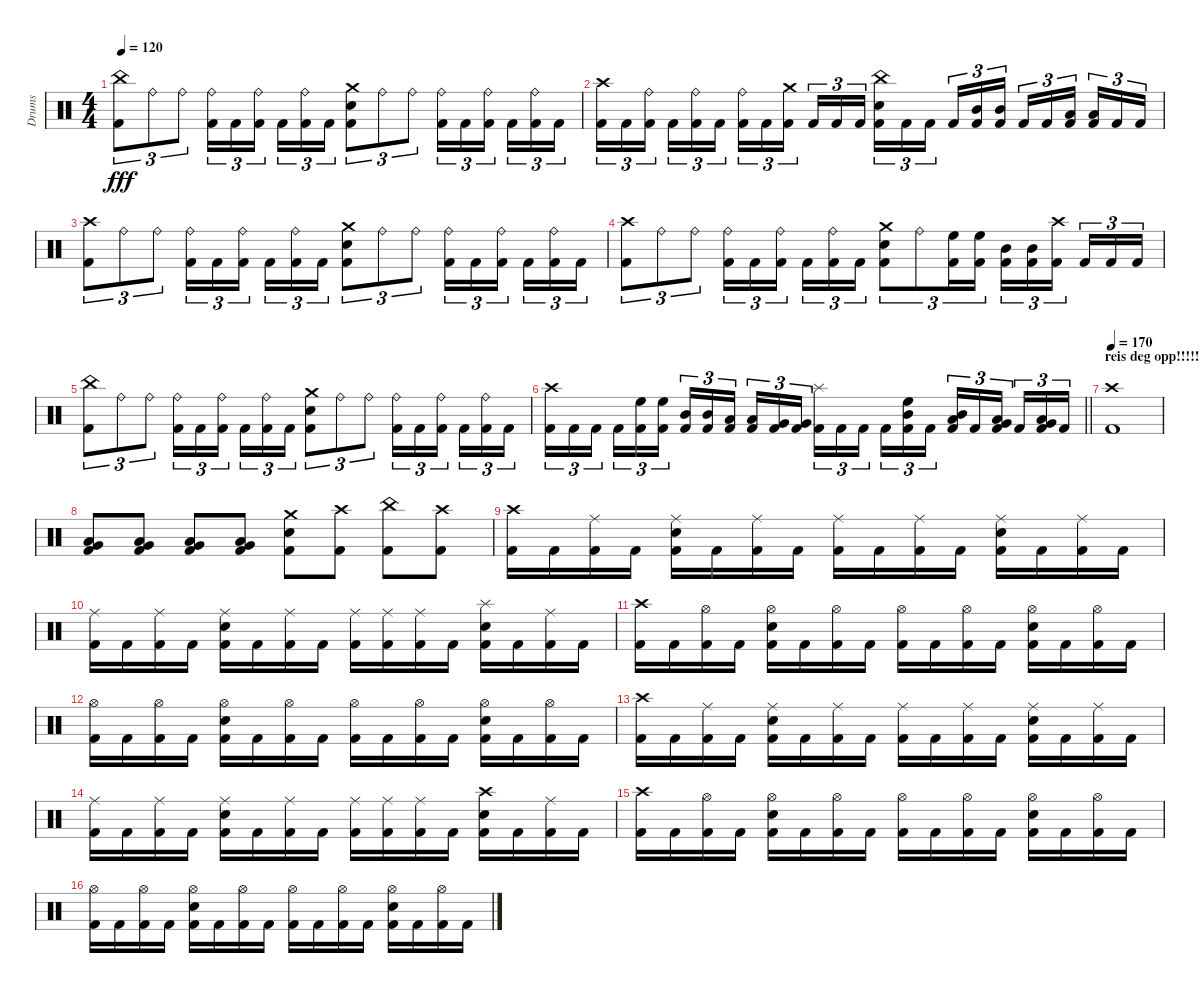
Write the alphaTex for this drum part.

\track ("Drums" "Drums") {instrument percussion}
\staff {score}
\articulation defaults
\ts (4 4)
\tempo 120
\clef neutral
\ks c
("China (hit)" "Kick (hit) 2").8{tu (3 2) dy fff} "Ride (bell)".8{tu (3 2)} "Ride (bell)".8{tu (3 2)} ("Ride (bell)" "Kick (hit) 2").16{tu (3 2)} "Kick (hit) 2".16{tu (3 2)} ("Ride (bell)" "Kick (hit) 2").16{tu (3 2) beam splitsecondary} "Kick (hit) 2".16{tu (3 2)} ("Ride (bell)" "Kick (hit) 2").16{tu (3 2)} "Kick (hit) 2".16{tu (3 2)} ("Crash medium (hit)" "Snare (hit) 2" "Kick (hit) 2").8{tu (3 2)} "Ride (bell)".8{tu (3 2)} "Ride (bell)".8{tu (3 2)} ("Ride (bell)" "Kick (hit) 2").16{tu (3 2)} "Kick (hit) 2".16{tu (3 2)} ("Ride (bell)" "Kick (hit) 2").16{tu (3 2) beam splitsecondary} "Kick (hit) 2".16{tu (3 2)} ("Ride (bell)" "Kick (hit) 2").16{tu (3 2)} "Kick (hit) 2".16{tu (3 2)} |
("Crash high (hit)" "Kick (hit) 2").16{tu (3 2)} "Kick (hit) 2".16{tu (3 2)} ("Ride (bell)" "Kick (hit) 2").16{tu (3 2) beam splitsecondary} "Kick (hit) 2".16{tu (3 2)} ("Ride (bell)" "Kick (hit) 2").16{tu (3 2)} "Kick (hit) 2".16{tu (3 2)} ("Ride (bell)" "Kick (hit) 2").16{tu (3 2)} "Kick (hit) 2".16{tu (3 2)} ("Crash medium (hit)" "Kick (hit) 2").16{tu (3 2) beam splitsecondary} "Kick (hit) 2".16{tu (3 2)} "Kick (hit) 2".16{tu (3 2)} "Kick (hit) 2".16{tu (3 2)} ("China (hit)" "Snare (hit) 2" "Kick (hit) 2").16{tu (3 2)} "Kick (hit) 2".16{tu (3 2)} "Kick (hit) 2".16{tu (3 2) beam splitsecondary} "Kick (hit) 2".16{tu (3 2)} ("Mid Tom (hit)" "Kick (hit) 2").16{tu (3 2)} ("Mid Tom (hit)" "Kick (hit) 2").16{tu (3 2)} "Kick (hit) 2".16{tu (3 2)} "Kick (hit) 2".16{tu (3 2)} ("Low Tom (hit)" "Kick (hit) 2").16{tu (3 2) beam splitsecondary} ("Low Tom (hit)" "Kick (hit) 2").16{tu (3 2)} "Kick (hit) 2".16{tu (3 2)} "Kick (hit) 2".16{tu (3 2)} |
("Crash high (hit)" "Kick (hit) 2").8{tu (3 2)} "Ride (bell)".8{tu (3 2)} "Ride (bell)".8{tu (3 2)} ("Ride (bell)" "Kick (hit) 2").16{tu (3 2)} "Kick (hit) 2".16{tu (3 2)} ("Ride (bell)" "Kick (hit) 2").16{tu (3 2) beam splitsecondary} "Kick (hit) 2".16{tu (3 2)} ("Ride (bell)" "Kick (hit) 2").16{tu (3 2)} "Kick (hit) 2".16{tu (3 2)} ("Crash medium (hit)" "Snare (hit) 2" "Kick (hit) 2").8{tu (3 2)} "Ride (bell)".8{tu (3 2)} "Ride (bell)".8{tu (3 2)} ("Ride (bell)" "Kick (hit) 2").16{tu (3 2)} "Kick (hit) 2".16{tu (3 2)} ("Ride (bell)" "Kick (hit) 2").16{tu (3 2) beam splitsecondary} "Kick (hit) 2".16{tu (3 2)} ("Ride (bell)" "Kick (hit) 2").16{tu (3 2)} "Kick (hit) 2".16{tu (3 2)} |
("Crash high (hit)" "Kick (hit) 2").8{tu (3 2)} "Ride (bell)".8{tu (3 2)} "Ride (bell)".8{tu (3 2)} ("Ride (bell)" "Kick (hit) 2").16{tu (3 2)} "Kick (hit) 2".16{tu (3 2)} ("Ride (bell)" "Kick (hit) 2").16{tu (3 2) beam splitsecondary} "Kick (hit) 2".16{tu (3 2)} ("Ride (bell)" "Kick (hit) 2").16{tu (3 2)} "Kick (hit) 2".16{tu (3 2)} ("Crash medium (hit)" "Snare (hit) 2" "Kick (hit) 2").8{tu (3 2)} "Ride (bell)".8{tu (3 2)} ("High Floor Tom (hit)" "Kick (hit) 2").16{tu (3 2)} ("High Floor Tom (hit)" "Kick (hit) 2").16{tu (3 2)} ("Mid Tom (hit)" "Kick (hit) 2").16{tu (3 2)} ("Mid Tom (hit)" "Kick (hit) 2").16{tu (3 2)} ("Crash high (hit)" "Kick (hit) 2").16{tu (3 2) beam splitsecondary} "Kick (hit) 2".16{tu (3 2)} "Kick (hit) 2".16{tu (3 2)} "Kick (hit) 2".16{tu (3 2)} |
("China (hit)" "Kick (hit) 2").8{tu (3 2)} "Ride (bell)".8{tu (3 2)} "Ride (bell)".8{tu (3 2)} ("Ride (bell)" "Kick (hit) 2").16{tu (3 2)} "Kick (hit) 2".16{tu (3 2)} ("Ride (bell)" "Kick (hit) 2").16{tu (3 2) beam splitsecondary} "Kick (hit) 2".16{tu (3 2)} ("Ride (bell)" "Kick (hit) 2").16{tu (3 2)} "Kick (hit) 2".16{tu (3 2)} ("Crash medium (hit)" "Snare (hit) 2" "Kick (hit) 2").8{tu (3 2)} "Ride (bell)".8{tu (3 2)} "Ride (bell)".8{tu (3 2)} ("Ride (bell)" "Kick (hit) 2").16{tu (3 2)} "Kick (hit) 2".16{tu (3 2)} ("Ride (bell)" "Kick (hit) 2").16{tu (3 2) beam splitsecondary} "Kick (hit) 2".16{tu (3 2)} ("Ride (bell)" "Kick (hit) 2").16{tu (3 2)} "Kick (hit) 2".16{tu (3 2)} |
\barLineRight lightlight
("Crash high (hit)" "Kick (hit) 2").16{tu (3 2)} "Kick (hit) 2".16{tu (3 2)} "Kick (hit) 2".16{tu (3 2) beam splitsecondary} "Kick (hit) 2".16{tu (3 2)} ("High Floor Tom (hit)" "Kick (hit) 2").16{tu (3 2)} ("High Floor Tom (hit)" "Kick (hit) 2").16{tu (3 2)} ("Mid Tom (hit)" "Kick (hit) 2").16{tu (3 2)} ("Mid Tom (hit)" "Kick (hit) 2").16{tu (3 2)} ("Low Tom (hit)" "Kick (hit) 2").16{tu (3 2) beam splitsecondary} ("Low Tom (hit)" "Kick (hit) 2").16{tu (3 2)} ("Very Low Tom (hit)" "Kick (hit) 2").16{tu (3 2)} ("Very Low Tom (hit)" "Kick (hit) 2").16{tu (3 2)} ("Splash (hit)" "Kick (hit) 2").16{tu (3 2)} "Kick (hit) 2".16{tu (3 2)} "Kick (hit) 2".16{tu (3 2) beam splitsecondary} "Kick (hit) 2".16{tu (3 2)} ("High Floor Tom (hit)" "Mid Tom (hit)" "Kick (hit) 2").16{tu (3 2)} "Kick (hit) 2".16{tu (3 2)} ("Mid Tom (hit)" "Low Tom (hit)" "Kick (hit) 2").16{tu (3 2)} "Kick (hit) 2".16{tu (3 2)} ("Low Tom (hit)" "Very Low Tom (hit)" "Kick (hit) 2").16{tu (3 2) beam splitsecondary} "Kick (hit) 2".16{tu (3 2)} ("Very Low Tom (hit)" "Low Floor Tom (hit)" "Kick (hit) 2").16{tu (3 2)} "Kick (hit) 2".16{tu (3 2)} |
\section ("" "reis deg opp!!!!!!!")
\tempo 170
("Crash high (hit)" "Kick (hit) 2").1 |
("Very Low Tom (hit)" "Low Floor Tom (hit)" "Kick (hit) 2").8 ("Very Low Tom (hit)" "Low Floor Tom (hit)" "Kick (hit) 2").8 ("Very Low Tom (hit)" "Low Floor Tom (hit)" "Kick (hit) 2").8 ("Very Low Tom (hit)" "Low Floor Tom (hit)" "Kick (hit) 2").8 ("Crash medium (hit)" "Snare (hit) 2" "Kick (hit) 2").8 ("Crash high (hit)" "Kick (hit) 2").8 ("China (hit)" "Kick (hit) 2").8 ("Crash high (hit)" "Kick (hit) 2").8 |
("Crash high (hit)" "Kick (hit) 2").16 "Kick (hit) 2".16 ("Ride (middle)" "Kick (hit) 2").16 "Kick (hit) 2".16 ("Ride (middle)" "Snare (hit) 2" "Kick (hit) 2").16 "Kick (hit) 2".16 ("Ride (middle)" "Kick (hit) 2").16 "Kick (hit) 2".16 ("Ride (middle)" "Kick (hit) 2").16 "Kick (hit) 2".16 ("Ride (middle)" "Kick (hit) 2").16 "Kick (hit) 2".16 ("Ride (middle)" "Snare (hit) 2" "Kick (hit) 2").16 "Kick (hit) 2".16 ("Ride (middle)" "Kick (hit) 2").16 "Kick (hit) 2".16 |
("Ride (middle)" "Kick (hit) 2").16 "Kick (hit) 2".16 ("Ride (middle)" "Kick (hit) 2").16 "Kick (hit) 2".16 ("Ride (middle)" "Snare (hit) 2" "Kick (hit) 2").16 "Kick (hit) 2".16 ("Ride (middle)" "Kick (hit) 2").16 "Kick (hit) 2".16 ("Ride (middle)" "Kick (hit) 2").16 ("Ride (middle)" "Kick (hit) 2").16 ("Ride (middle)" "Kick (hit) 2").16 "Kick (hit) 2".16 ("Splash (hit)" "Snare (hit) 2" "Kick (hit) 2").16 "Kick (hit) 2".16 ("Ride (middle)" "Kick (hit) 2").16 "Kick (hit) 2".16 |
("Crash high (hit)" "Kick (hit) 2").16 "Kick (hit) 2".16 ("Hi-Hat (open)" "Kick (hit) 2").16 "Kick (hit) 2".16 ("Snare (hit) 2" "Hi-Hat (open)" "Kick (hit) 2").16 "Kick (hit) 2".16 ("Hi-Hat (open)" "Kick (hit) 2").16 "Kick (hit) 2".16 ("Hi-Hat (open)" "Kick (hit) 2").16 "Kick (hit) 2".16 ("Hi-Hat (open)" "Kick (hit) 2").16 "Kick (hit) 2".16 ("Snare (hit) 2" "Hi-Hat (open)" "Kick (hit) 2").16 "Kick (hit) 2".16 ("Hi-Hat (open)" "Kick (hit) 2").16 "Kick (hit) 2".16 |
("Hi-Hat (open)" "Kick (hit) 2").16 "Kick (hit) 2".16 ("Hi-Hat (open)" "Kick (hit) 2").16 "Kick (hit) 2".16 ("Snare (hit) 2" "Hi-Hat (open)" "Kick (hit) 2").16 "Kick (hit) 2".16 ("Hi-Hat (open)" "Kick (hit) 2").16 "Kick (hit) 2".16 ("Hi-Hat (open)" "Kick (hit) 2").16 "Kick (hit) 2".16 ("Hi-Hat (open)" "Kick (hit) 2").16 "Kick (hit) 2".16 ("Snare (hit) 2" "Hi-Hat (open)" "Kick (hit) 2").16 "Kick (hit) 2".16 ("Hi-Hat (open)" "Kick (hit) 2").16 "Kick (hit) 2".16 |
("Crash high (hit)" "Kick (hit) 2").16 "Kick (hit) 2".16 ("Ride (middle)" "Kick (hit) 2").16 "Kick (hit) 2".16 ("Ride (middle)" "Snare (hit) 2" "Kick (hit) 2").16 "Kick (hit) 2".16 ("Ride (middle)" "Kick (hit) 2").16 "Kick (hit) 2".16 ("Ride (middle)" "Kick (hit) 2").16 "Kick (hit) 2".16 ("Ride (middle)" "Kick (hit) 2").16 "Kick (hit) 2".16 ("Ride (middle)" "Snare (hit) 2" "Kick (hit) 2").16 "Kick (hit) 2".16 ("Ride (middle)" "Kick (hit) 2").16 "Kick (hit) 2".16 |
("Ride (middle)" "Kick (hit) 2").16 "Kick (hit) 2".16 ("Ride (middle)" "Kick (hit) 2").16 "Kick (hit) 2".16 ("Ride (middle)" "Snare (hit) 2" "Kick (hit) 2").16 "Kick (hit) 2".16 ("Ride (middle)" "Kick (hit) 2").16 "Kick (hit) 2".16 ("Ride (middle)" "Kick (hit) 2").16 ("Ride (middle)" "Kick (hit) 2").16 ("Ride (middle)" "Kick (hit) 2").16 "Kick (hit) 2".16 ("Crash high (hit)" "Snare (hit) 2" "Kick (hit) 2").16 "Kick (hit) 2".16 ("Ride (middle)" "Kick (hit) 2").16 "Kick (hit) 2".16 |
("Crash high (hit)" "Kick (hit) 2").16 "Kick (hit) 2".16 ("Hi-Hat (open)" "Kick (hit) 2").16 "Kick (hit) 2".16 ("Snare (hit) 2" "Hi-Hat (open)" "Kick (hit) 2").16 "Kick (hit) 2".16 ("Hi-Hat (open)" "Kick (hit) 2").16 "Kick (hit) 2".16 ("Hi-Hat (open)" "Kick (hit) 2").16 "Kick (hit) 2".16 ("Hi-Hat (open)" "Kick (hit) 2").16 "Kick (hit) 2".16 ("Snare (hit) 2" "Hi-Hat (open)" "Kick (hit) 2").16 "Kick (hit) 2".16 ("Hi-Hat (open)" "Kick (hit) 2").16 "Kick (hit) 2".16 |
("Hi-Hat (open)" "Kick (hit) 2").16 "Kick (hit) 2".16 ("Hi-Hat (open)" "Kick (hit) 2").16 "Kick (hit) 2".16 ("Snare (hit) 2" "Hi-Hat (open)" "Kick (hit) 2").16 "Kick (hit) 2".16 ("Hi-Hat (open)" "Kick (hit) 2").16 "Kick (hit) 2".16 ("Hi-Hat (open)" "Kick (hit) 2").16 "Kick (hit) 2".16 ("Hi-Hat (open)" "Kick (hit) 2").16 "Kick (hit) 2".16 ("Snare (hit) 2" "Hi-Hat (open)" "Kick (hit) 2").16 "Kick (hit) 2".16 ("Hi-Hat (open)" "Kick (hit) 2").16 "Kick (hit) 2".16
